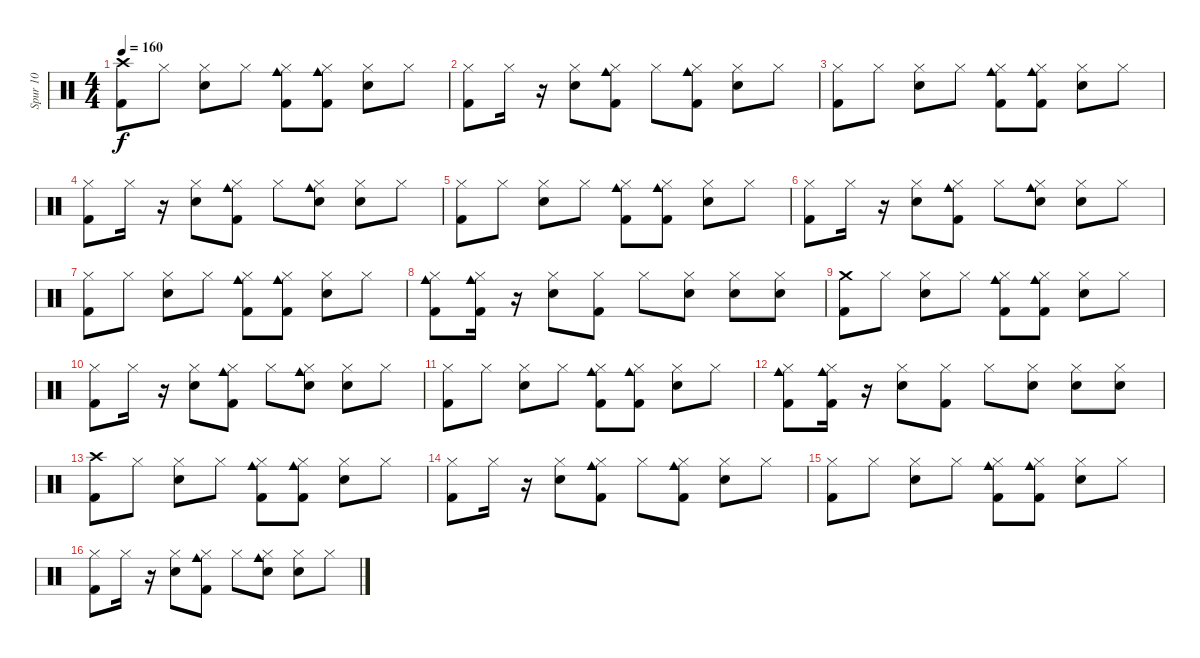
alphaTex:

\track ("Spur 10" "Spur 10") {instrument percussion}
\staff {score}
\articulation defaults
\ts (4 4)
\tempo 160
\clef neutral
\ks c
("Crash high (hit)" "Kick (hit) 2").8{dy f} "Hi-Hat (closed)".8 ("Hi-Hat (closed)" "Snare (hit) 2").8 "Hi-Hat (closed)".8 ("Hi-Hat (closed)" "Cowbell medium (hit)" "Kick (hit) 2").8 ("Hi-Hat (closed)" "Cowbell medium (hit)" "Kick (hit) 2").8 ("Hi-Hat (closed)" "Snare (hit) 2").8 "Hi-Hat (closed)".8 |
("Hi-Hat (closed)" "Kick (hit) 2").8 "Hi-Hat (closed)".16 r.16 ("Hi-Hat (closed)" "Snare (hit) 2").8 ("Hi-Hat (closed)" "Kick (hit) 2" "Cowbell medium (hit)").8 "Hi-Hat (closed)".8 ("Hi-Hat (closed)" "Kick (hit) 2" "Cowbell medium (hit)").8 ("Hi-Hat (closed)" "Snare (hit) 2").8 "Hi-Hat (closed)".8 |
("Hi-Hat (closed)" "Kick (hit) 2").8 "Hi-Hat (closed)".8 ("Hi-Hat (closed)" "Snare (hit) 2").8 "Hi-Hat (closed)".8 ("Hi-Hat (closed)" "Cowbell medium (hit)" "Kick (hit) 2").8 ("Hi-Hat (closed)" "Cowbell medium (hit)" "Kick (hit) 2").8 ("Hi-Hat (closed)" "Snare (hit) 2").8 "Hi-Hat (closed)".8 |
("Hi-Hat (closed)" "Kick (hit) 2").8 "Hi-Hat (closed)".16 r.16 ("Hi-Hat (closed)" "Snare (hit) 2").8 ("Hi-Hat (closed)" "Kick (hit) 2" "Cowbell medium (hit)").8 "Hi-Hat (closed)".8 ("Hi-Hat (closed)" "Hand Clap (hit)" "Cowbell medium (hit)").8 ("Hi-Hat (closed)" "Snare (hit) 2").8 "Hi-Hat (closed)".8 |
("Hi-Hat (closed)" "Kick (hit) 2").8 "Hi-Hat (closed)".8 ("Hi-Hat (closed)" "Snare (hit) 2").8 "Hi-Hat (closed)".8 ("Hi-Hat (closed)" "Cowbell medium (hit)" "Kick (hit) 2").8 ("Hi-Hat (closed)" "Cowbell medium (hit)" "Kick (hit) 2").8 ("Hi-Hat (closed)" "Snare (hit) 2").8 "Hi-Hat (closed)".8 |
("Hi-Hat (closed)" "Kick (hit) 2").8 "Hi-Hat (closed)".16 r.16 ("Hi-Hat (closed)" "Snare (hit) 2").8 ("Hi-Hat (closed)" "Kick (hit) 2" "Cowbell medium (hit)").8 "Hi-Hat (closed)".8 ("Hi-Hat (closed)" "Hand Clap (hit)" "Cowbell medium (hit)").8 ("Hi-Hat (closed)" "Snare (hit) 2").8 "Hi-Hat (closed)".8 |
("Hi-Hat (closed)" "Kick (hit) 2").8 "Hi-Hat (closed)".8 ("Hi-Hat (closed)" "Snare (hit) 2").8 "Hi-Hat (closed)".8 ("Hi-Hat (closed)" "Cowbell medium (hit)" "Kick (hit) 2").8 ("Hi-Hat (closed)" "Cowbell medium (hit)" "Kick (hit) 2").8 ("Hi-Hat (closed)" "Snare (hit) 2").8 "Hi-Hat (closed)".8 |
("Cowbell medium (hit)" "Hi-Hat (closed)" "Kick (hit) 2").8 ("Cowbell medium (hit)" "Kick (hit) 2" "Hi-Hat (closed)").16 r.16 ("Hi-Hat (closed)" "Snare (hit) 2").8 ("Hi-Hat (closed)" "Kick (hit) 2").8 "Hi-Hat (closed)".8 ("Hi-Hat (closed)" "Snare (hit) 2").8 ("Hi-Hat (closed)" "Snare (hit) 2").8 ("Snare (hit) 2" "Hi-Hat (closed)").8 |
("Crash medium (hit)" "Kick (hit) 2").8 "Hi-Hat (closed)".8 ("Hi-Hat (closed)" "Snare (hit) 2").8 "Hi-Hat (closed)".8 ("Hi-Hat (closed)" "Cowbell medium (hit)" "Kick (hit) 2").8 ("Hi-Hat (closed)" "Cowbell medium (hit)" "Kick (hit) 2").8 ("Hi-Hat (closed)" "Snare (hit) 2").8 "Hi-Hat (closed)".8 |
("Hi-Hat (closed)" "Kick (hit) 2").8 "Hi-Hat (closed)".16 r.16 ("Hi-Hat (closed)" "Snare (hit) 2").8 ("Hi-Hat (closed)" "Kick (hit) 2" "Cowbell medium (hit)").8 "Hi-Hat (closed)".8 ("Hi-Hat (closed)" "Hand Clap (hit)" "Cowbell medium (hit)").8 ("Hi-Hat (closed)" "Snare (hit) 2").8 "Hi-Hat (closed)".8 |
("Hi-Hat (closed)" "Kick (hit) 2").8 "Hi-Hat (closed)".8 ("Hi-Hat (closed)" "Snare (hit) 2").8 "Hi-Hat (closed)".8 ("Hi-Hat (closed)" "Cowbell medium (hit)" "Kick (hit) 2").8 ("Hi-Hat (closed)" "Cowbell medium (hit)" "Kick (hit) 2").8 ("Hi-Hat (closed)" "Snare (hit) 2").8 "Hi-Hat (closed)".8 |
("Cowbell medium (hit)" "Hi-Hat (closed)" "Kick (hit) 2").8 ("Cowbell medium (hit)" "Kick (hit) 2" "Hi-Hat (closed)").16 r.16 ("Hi-Hat (closed)" "Snare (hit) 2").8 ("Hi-Hat (closed)" "Kick (hit) 2").8 "Hi-Hat (closed)".8 ("Hi-Hat (closed)" "Snare (hit) 2").8 ("Hi-Hat (closed)" "Snare (hit) 2").8 ("Snare (hit) 2" "Hi-Hat (closed)").8 |
("Crash high (hit)" "Kick (hit) 2").8 "Hi-Hat (closed)".8 ("Hi-Hat (closed)" "Snare (hit) 2").8 "Hi-Hat (closed)".8 ("Hi-Hat (closed)" "Cowbell medium (hit)" "Kick (hit) 2").8 ("Hi-Hat (closed)" "Cowbell medium (hit)" "Kick (hit) 2").8 ("Hi-Hat (closed)" "Snare (hit) 2").8 "Hi-Hat (closed)".8 |
("Hi-Hat (closed)" "Kick (hit) 2").8 "Hi-Hat (closed)".16 r.16 ("Hi-Hat (closed)" "Snare (hit) 2").8 ("Hi-Hat (closed)" "Kick (hit) 2" "Cowbell medium (hit)").8 "Hi-Hat (closed)".8 ("Hi-Hat (closed)" "Kick (hit) 2" "Cowbell medium (hit)").8 ("Hi-Hat (closed)" "Snare (hit) 2").8 "Hi-Hat (closed)".8 |
("Hi-Hat (closed)" "Kick (hit) 2").8 "Hi-Hat (closed)".8 ("Hi-Hat (closed)" "Snare (hit) 2").8 "Hi-Hat (closed)".8 ("Hi-Hat (closed)" "Cowbell medium (hit)" "Kick (hit) 2").8 ("Hi-Hat (closed)" "Cowbell medium (hit)" "Kick (hit) 2").8 ("Hi-Hat (closed)" "Snare (hit) 2").8 "Hi-Hat (closed)".8 |
("Hi-Hat (closed)" "Kick (hit) 2").8 "Hi-Hat (closed)".16 r.16 ("Hi-Hat (closed)" "Snare (hit) 2").8 ("Hi-Hat (closed)" "Kick (hit) 2" "Cowbell medium (hit)").8 "Hi-Hat (closed)".8 ("Hi-Hat (closed)" "Hand Clap (hit)" "Cowbell medium (hit)").8 ("Hi-Hat (closed)" "Snare (hit) 2").8 "Hi-Hat (closed)".8
